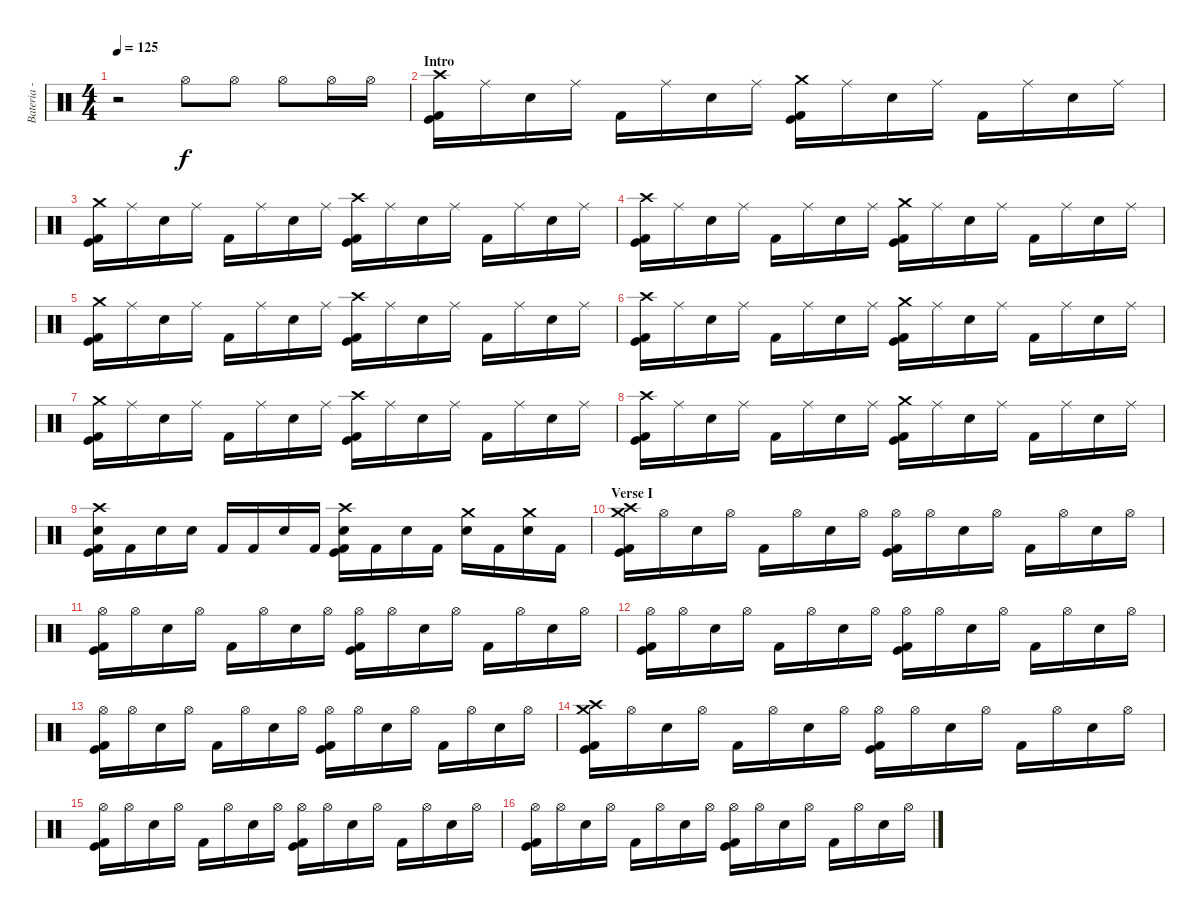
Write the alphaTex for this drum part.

\track ("Bateria - Drums" "Bateria - ") {instrument percussion}
\staff {score}
\articulation defaults
\ts (4 4)
\tempo 125
\clef neutral
\ks c
r.2{dy f} "Hi-Hat (open)".8 "Hi-Hat (open)".8 "Hi-Hat (open)".8 "Hi-Hat (open)".16 "Hi-Hat (open)".16 |
\section ("" "Intro")
("Crash high (hit)" "Kick (hit)" "Kick (hit) 2").16 "Ride (middle)".16 "Electric Snare (hit)".16 "Ride (middle)".16 "Kick (hit) 2".16 "Ride (middle)".16 "Electric Snare (hit)".16 "Ride (middle)".16 ("Crash medium (hit)" "Kick (hit)" "Kick (hit) 2").16 "Ride (middle)".16 "Electric Snare (hit)".16 "Ride (middle)".16 "Kick (hit) 2".16 "Ride (middle)".16 "Electric Snare (hit)".16 "Ride (middle)".16 |
("Crash medium (hit)" "Kick (hit)" "Kick (hit) 2").16 "Ride (middle)".16 "Electric Snare (hit)".16 "Ride (middle)".16 "Kick (hit) 2".16 "Ride (middle)".16 "Electric Snare (hit)".16 "Ride (middle)".16 ("Crash high (hit)" "Kick (hit)" "Kick (hit) 2").16 "Ride (middle)".16 "Electric Snare (hit)".16 "Ride (middle)".16 "Kick (hit) 2".16 "Ride (middle)".16 "Electric Snare (hit)".16 "Ride (middle)".16 |
("Crash high (hit)" "Kick (hit)" "Kick (hit) 2").16 "Ride (middle)".16 "Electric Snare (hit)".16 "Ride (middle)".16 "Kick (hit) 2".16 "Ride (middle)".16 "Electric Snare (hit)".16 "Ride (middle)".16 ("Crash medium (hit)" "Kick (hit)" "Kick (hit) 2").16 "Ride (middle)".16 "Electric Snare (hit)".16 "Ride (middle)".16 "Kick (hit) 2".16 "Ride (middle)".16 "Electric Snare (hit)".16 "Ride (middle)".16 |
("Crash medium (hit)" "Kick (hit)" "Kick (hit) 2").16 "Ride (middle)".16 "Electric Snare (hit)".16 "Ride (middle)".16 "Kick (hit) 2".16 "Ride (middle)".16 "Electric Snare (hit)".16 "Ride (middle)".16 ("Crash high (hit)" "Kick (hit)" "Kick (hit) 2").16 "Ride (middle)".16 "Electric Snare (hit)".16 "Ride (middle)".16 "Kick (hit) 2".16 "Ride (middle)".16 "Electric Snare (hit)".16 "Ride (middle)".16 |
("Crash high (hit)" "Kick (hit)" "Kick (hit) 2").16 "Ride (middle)".16 "Electric Snare (hit)".16 "Ride (middle)".16 "Kick (hit) 2".16 "Ride (middle)".16 "Electric Snare (hit)".16 "Ride (middle)".16 ("Crash medium (hit)" "Kick (hit)" "Kick (hit) 2").16 "Ride (middle)".16 "Electric Snare (hit)".16 "Ride (middle)".16 "Kick (hit) 2".16 "Ride (middle)".16 "Electric Snare (hit)".16 "Ride (middle)".16 |
("Crash medium (hit)" "Kick (hit)" "Kick (hit) 2").16 "Ride (middle)".16 "Electric Snare (hit)".16 "Ride (middle)".16 "Kick (hit) 2".16 "Ride (middle)".16 "Electric Snare (hit)".16 "Ride (middle)".16 ("Crash high (hit)" "Kick (hit)" "Kick (hit) 2").16 "Ride (middle)".16 "Electric Snare (hit)".16 "Ride (middle)".16 "Kick (hit) 2".16 "Ride (middle)".16 "Electric Snare (hit)".16 "Ride (middle)".16 |
("Crash high (hit)" "Kick (hit)" "Kick (hit) 2").16 "Ride (middle)".16 "Electric Snare (hit)".16 "Ride (middle)".16 "Kick (hit) 2".16 "Ride (middle)".16 "Electric Snare (hit)".16 "Ride (middle)".16 ("Crash medium (hit)" "Kick (hit)" "Kick (hit) 2").16 "Ride (middle)".16 "Electric Snare (hit)".16 "Ride (middle)".16 "Kick (hit) 2".16 "Ride (middle)".16 "Electric Snare (hit)".16 "Ride (middle)".16 |
("Crash high (hit)" "Snare (hit) 2" "Kick (hit)" "Kick (hit) 2").16 "Kick (hit) 2".16 "Snare (hit) 2".16 "Snare (hit) 2".16 "Kick (hit) 2".16 "Kick (hit) 2".16 "Snare (hit) 2".16 "Kick (hit) 2".16 ("Crash high (hit)" "Snare (hit) 2" "Kick (hit)" "Kick (hit) 2").16 "Kick (hit) 2".16 "Snare (hit) 2".16 "Kick (hit) 2".16 ("Crash medium (hit)" "Electric Snare (hit)").16 "Kick (hit) 2".16 ("Crash medium (hit)" "Electric Snare (hit)").16 "Kick (hit) 2".16 |
\section ("" "Verse I")
("Crash high (hit)" "Crash medium (hit)" "Kick (hit)" "Kick (hit) 2").16 "Hi-Hat (open)".16 "Electric Snare (hit)".16 "Hi-Hat (open)".16 "Kick (hit) 2".16 "Hi-Hat (open)".16 "Electric Snare (hit)".16 "Hi-Hat (open)".16 ("Hi-Hat (open)" "Kick (hit)" "Kick (hit) 2").16 "Hi-Hat (open)".16 "Electric Snare (hit)".16 "Hi-Hat (open)".16 "Kick (hit) 2".16 "Hi-Hat (open)".16 "Electric Snare (hit)".16 "Hi-Hat (open)".16 |
("Hi-Hat (open)" "Kick (hit)" "Kick (hit) 2").16 "Hi-Hat (open)".16 "Electric Snare (hit)".16 "Hi-Hat (open)".16 "Kick (hit) 2".16 "Hi-Hat (open)".16 "Electric Snare (hit)".16 "Hi-Hat (open)".16 ("Hi-Hat (open)" "Kick (hit)" "Kick (hit) 2").16 "Hi-Hat (open)".16 "Electric Snare (hit)".16 "Hi-Hat (open)".16 "Kick (hit) 2".16 "Hi-Hat (open)".16 "Electric Snare (hit)".16 "Hi-Hat (open)".16 |
("Hi-Hat (open)" "Kick (hit)" "Kick (hit) 2").16 "Hi-Hat (open)".16 "Electric Snare (hit)".16 "Hi-Hat (open)".16 "Kick (hit) 2".16 "Hi-Hat (open)".16 "Electric Snare (hit)".16 "Hi-Hat (open)".16 ("Hi-Hat (open)" "Kick (hit)" "Kick (hit) 2").16 "Hi-Hat (open)".16 "Electric Snare (hit)".16 "Hi-Hat (open)".16 "Kick (hit) 2".16 "Hi-Hat (open)".16 "Electric Snare (hit)".16 "Hi-Hat (open)".16 |
("Hi-Hat (open)" "Kick (hit)" "Kick (hit) 2").16 "Hi-Hat (open)".16 "Electric Snare (hit)".16 "Hi-Hat (open)".16 "Kick (hit) 2".16 "Hi-Hat (open)".16 "Electric Snare (hit)".16 "Hi-Hat (open)".16 ("Hi-Hat (open)" "Kick (hit)" "Kick (hit) 2").16 "Hi-Hat (open)".16 "Electric Snare (hit)".16 "Hi-Hat (open)".16 "Kick (hit) 2".16 "Hi-Hat (open)".16 "Electric Snare (hit)".16 "Hi-Hat (open)".16 |
("Crash high (hit)" "Crash medium (hit)" "Kick (hit)" "Kick (hit) 2").16 "Hi-Hat (open)".16 "Electric Snare (hit)".16 "Hi-Hat (open)".16 "Kick (hit) 2".16 "Hi-Hat (open)".16 "Electric Snare (hit)".16 "Hi-Hat (open)".16 ("Hi-Hat (open)" "Kick (hit)" "Kick (hit) 2").16 "Hi-Hat (open)".16 "Electric Snare (hit)".16 "Hi-Hat (open)".16 "Kick (hit) 2".16 "Hi-Hat (open)".16 "Electric Snare (hit)".16 "Hi-Hat (open)".16 |
("Hi-Hat (open)" "Kick (hit)" "Kick (hit) 2").16 "Hi-Hat (open)".16 "Electric Snare (hit)".16 "Hi-Hat (open)".16 "Kick (hit) 2".16 "Hi-Hat (open)".16 "Electric Snare (hit)".16 "Hi-Hat (open)".16 ("Hi-Hat (open)" "Kick (hit)" "Kick (hit) 2").16 "Hi-Hat (open)".16 "Electric Snare (hit)".16 "Hi-Hat (open)".16 "Kick (hit) 2".16 "Hi-Hat (open)".16 "Electric Snare (hit)".16 "Hi-Hat (open)".16 |
("Hi-Hat (open)" "Kick (hit)" "Kick (hit) 2").16 "Hi-Hat (open)".16 "Electric Snare (hit)".16 "Hi-Hat (open)".16 "Kick (hit) 2".16 "Hi-Hat (open)".16 "Electric Snare (hit)".16 "Hi-Hat (open)".16 ("Hi-Hat (open)" "Kick (hit)" "Kick (hit) 2").16 "Hi-Hat (open)".16 "Electric Snare (hit)".16 "Hi-Hat (open)".16 "Kick (hit) 2".16 "Hi-Hat (open)".16 "Electric Snare (hit)".16 "Hi-Hat (open)".16
